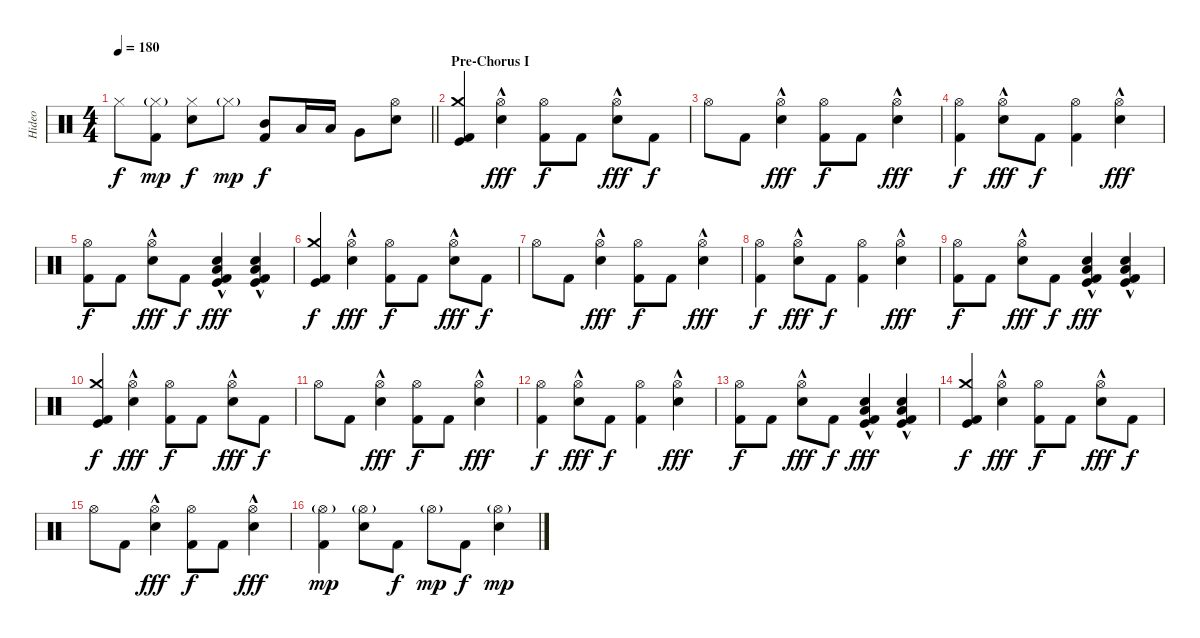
\track ("Hideo" "Hideo") {instrument percussion}
\staff {score}
\articulation defaults
\ts (4 4)
\tempo 180
\clef neutral
\barLineRight lightlight
\ks c "Hi-Hat (closed)".8{dy f}
("Hi-Hat (closed)"{g} "Kick (hit) 2").8{dy mp} ("Hi-Hat (closed)" "Electric Snare (hit)").8{dy f} "Hi-Hat (closed)"{g}.8{dy mp} ("Mid Tom (hit)" "Kick (hit) 2").8{dy f} "Low Tom (hit)".16 "Low Tom (hit)".16 "Very Low Tom (hit)".8 ("Hi-Hat (open)" "Electric Snare (hit)").8 |
\section ("" "Pre-Chorus I")
("Crash medium (hit)" "Kick (hit) 2" "Kick (hit)").4 ("Hi-Hat (open)"{hac} "Electric Snare (hit)").4{dy fff} ("Hi-Hat (open)" "Kick (hit) 2").8{dy f} "Kick (hit) 2".8 ("Hi-Hat (open)"{hac} "Electric Snare (hit)").8{dy fff} "Kick (hit) 2".8{dy f} |
"Hi-Hat (open)".8 "Kick (hit) 2".8 ("Hi-Hat (open)"{hac} "Electric Snare (hit)").4{dy fff} ("Hi-Hat (open)" "Kick (hit) 2").8{dy f} "Kick (hit) 2".8 ("Hi-Hat (open)"{hac} "Electric Snare (hit)").4{dy fff} |
("Hi-Hat (open)" "Kick (hit) 2").4{dy f} ("Hi-Hat (open)"{hac} "Electric Snare (hit)").8{dy fff} "Kick (hit) 2".8{dy f} ("Hi-Hat (open)" "Kick (hit) 2").4 ("Hi-Hat (open)"{hac} "Electric Snare (hit)").4{dy fff} |
("Hi-Hat (open)" "Kick (hit) 2").8{dy f} "Kick (hit) 2".8 ("Hi-Hat (open)"{hac} "Electric Snare (hit)").8{dy fff} "Kick (hit) 2".8{dy f} ("Low Floor Tom (hit)" "Electric Snare (hit)"{hac} "Kick (hit)" "Kick (hit) 2").4{dy fff} ("Low Floor Tom (hit)" "Electric Snare (hit)"{hac} "Kick (hit) 2" "Kick (hit)").4 |
("Crash medium (hit)" "Kick (hit) 2" "Kick (hit)").4{dy f} ("Hi-Hat (open)"{hac} "Electric Snare (hit)").4{dy fff} ("Hi-Hat (open)" "Kick (hit) 2").8{dy f} "Kick (hit) 2".8 ("Hi-Hat (open)"{hac} "Electric Snare (hit)").8{dy fff} "Kick (hit) 2".8{dy f} |
"Hi-Hat (open)".8 "Kick (hit) 2".8 ("Hi-Hat (open)"{hac} "Electric Snare (hit)").4{dy fff} ("Hi-Hat (open)" "Kick (hit) 2").8{dy f} "Kick (hit) 2".8 ("Hi-Hat (open)"{hac} "Electric Snare (hit)").4{dy fff} |
("Hi-Hat (open)" "Kick (hit) 2").4{dy f} ("Hi-Hat (open)"{hac} "Electric Snare (hit)").8{dy fff} "Kick (hit) 2".8{dy f} ("Hi-Hat (open)" "Kick (hit) 2").4 ("Hi-Hat (open)"{hac} "Electric Snare (hit)").4{dy fff} |
("Hi-Hat (open)" "Kick (hit) 2").8{dy f} "Kick (hit) 2".8 ("Hi-Hat (open)"{hac} "Electric Snare (hit)").8{dy fff} "Kick (hit) 2".8{dy f} ("Low Floor Tom (hit)" "Electric Snare (hit)"{hac} "Kick (hit)" "Kick (hit) 2").4{dy fff} ("Low Floor Tom (hit)" "Electric Snare (hit)"{hac} "Kick (hit) 2" "Kick (hit)").4 |
("Crash medium (hit)" "Kick (hit) 2" "Kick (hit)").4{dy f} ("Hi-Hat (open)"{hac} "Electric Snare (hit)").4{dy fff} ("Hi-Hat (open)" "Kick (hit) 2").8{dy f} "Kick (hit) 2".8 ("Hi-Hat (open)"{hac} "Electric Snare (hit)").8{dy fff} "Kick (hit) 2".8{dy f} |
"Hi-Hat (open)".8 "Kick (hit) 2".8 ("Hi-Hat (open)"{hac} "Electric Snare (hit)").4{dy fff} ("Hi-Hat (open)" "Kick (hit) 2").8{dy f} "Kick (hit) 2".8 ("Hi-Hat (open)"{hac} "Electric Snare (hit)").4{dy fff} |
("Hi-Hat (open)" "Kick (hit) 2").4{dy f} ("Hi-Hat (open)"{hac} "Electric Snare (hit)").8{dy fff} "Kick (hit) 2".8{dy f} ("Hi-Hat (open)" "Kick (hit) 2").4 ("Hi-Hat (open)"{hac} "Electric Snare (hit)").4{dy fff} |
("Hi-Hat (open)" "Kick (hit) 2").8{dy f} "Kick (hit) 2".8 ("Hi-Hat (open)"{hac} "Electric Snare (hit)").8{dy fff} "Kick (hit) 2".8{dy f} ("Low Floor Tom (hit)" "Electric Snare (hit)"{hac} "Kick (hit)" "Kick (hit) 2").4{dy fff} ("Low Floor Tom (hit)" "Electric Snare (hit)"{hac} "Kick (hit) 2" "Kick (hit)").4 |
("Crash medium (hit)" "Kick (hit) 2" "Kick (hit)").4{dy f} ("Hi-Hat (open)"{hac} "Electric Snare (hit)").4{dy fff} ("Hi-Hat (open)" "Kick (hit) 2").8{dy f} "Kick (hit) 2".8 ("Hi-Hat (open)"{hac} "Electric Snare (hit)").8{dy fff} "Kick (hit) 2".8{dy f} |
"Hi-Hat (open)".8 "Kick (hit) 2".8 ("Hi-Hat (open)"{hac} "Electric Snare (hit)").4{dy fff} ("Hi-Hat (open)" "Kick (hit) 2").8{dy f} "Kick (hit) 2".8 ("Hi-Hat (open)"{hac} "Electric Snare (hit)").4{dy fff} |
("Hi-Hat (open)"{g} "Kick (hit) 2").4{dy mp} ("Hi-Hat (open)"{g} "Electric Snare (hit)").8 "Kick (hit) 2".8{dy f} "Hi-Hat (open)"{g}.8{dy mp} "Kick (hit) 2".8{dy f} ("Hi-Hat (open)"{g} "Electric Snare (hit)").4{dy mp}
